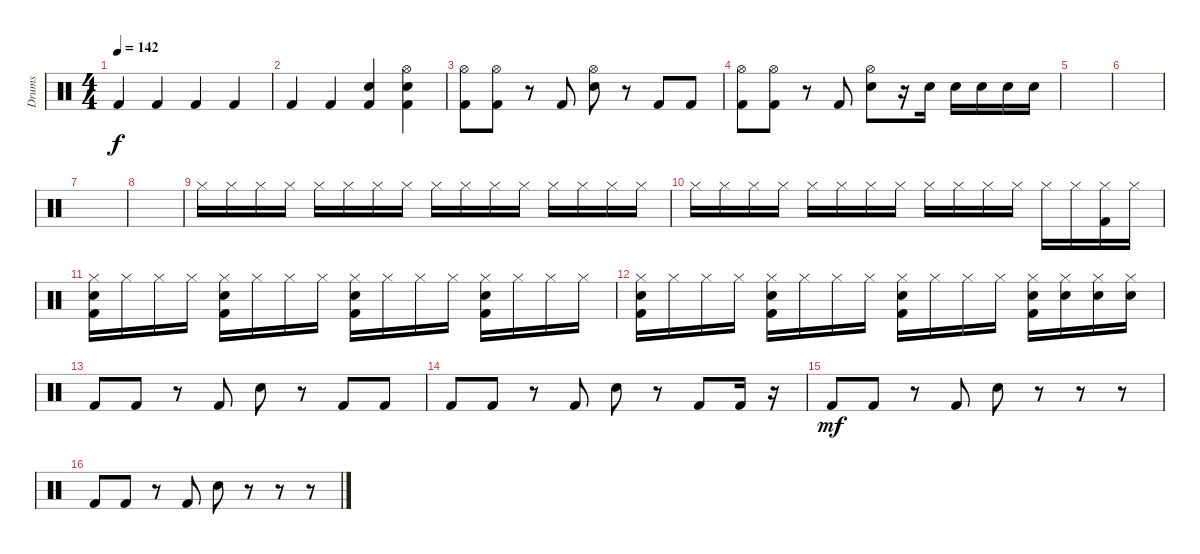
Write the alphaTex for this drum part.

\track ("Drums" "Drums") {instrument percussion}
\staff {score}
\articulation defaults
\ts (4 4)
\tempo 142
\clef neutral
\ks c "Kick (hit) 2".4{dy f} "Kick (hit) 2".4 "Kick (hit) 2".4 "Kick (hit) 2".4
|
"Kick (hit) 2".4 "Kick (hit) 2".4 ("Snare (hit) 2" "Kick (hit) 2").4 ("Hi-Hat (open)" "Snare (hit) 2" "Kick (hit) 2").4 |
("Hi-Hat (open)" "Kick (hit) 2").8 ("Hi-Hat (open)" "Kick (hit) 2").8 r.8 "Kick (hit) 2".8 ("Hi-Hat (open)" "Snare (hit) 2").8 r.8 "Kick (hit) 2".8 "Kick (hit) 2".8 |
("Hi-Hat (open)" "Kick (hit) 2").8 ("Hi-Hat (open)" "Kick (hit) 2").8 r.8 "Kick (hit) 2".8 ("Hi-Hat (open)" "Snare (hit) 2").8 r.16 "Snare (hit) 2".16 "Snare (hit) 2".16 "Snare (hit) 2".16 "Snare (hit) 2".16 "Snare (hit) 2".16 |
|
|
|
|
"Hi-Hat (closed)".16 "Hi-Hat (closed)".16 "Hi-Hat (closed)".16 "Hi-Hat (closed)".16 "Hi-Hat (closed)".16 "Hi-Hat (closed)".16 "Hi-Hat (closed)".16 "Hi-Hat (closed)".16 "Hi-Hat (closed)".16 "Hi-Hat (closed)".16 "Hi-Hat (closed)".16 "Hi-Hat (closed)".16 "Hi-Hat (closed)".16 "Hi-Hat (closed)".16 "Hi-Hat (closed)".16 "Hi-Hat (closed)".16 |
"Hi-Hat (closed)".16 "Hi-Hat (closed)".16 "Hi-Hat (closed)".16 "Hi-Hat (closed)".16 "Hi-Hat (closed)".16 "Hi-Hat (closed)".16 "Hi-Hat (closed)".16 "Hi-Hat (closed)".16 "Hi-Hat (closed)".16 "Hi-Hat (closed)".16 "Hi-Hat (closed)".16 "Hi-Hat (closed)".16 "Hi-Hat (closed)".16 "Hi-Hat (closed)".16 ("Hi-Hat (closed)" "Kick (hit) 2").16 "Hi-Hat (closed)".16 |
("Hi-Hat (closed)" "Snare (hit) 2" "Kick (hit) 2").16 "Hi-Hat (closed)".16 "Hi-Hat (closed)".16 "Hi-Hat (closed)".16 ("Hi-Hat (closed)" "Snare (hit) 2" "Kick (hit) 2").16 "Hi-Hat (closed)".16 "Hi-Hat (closed)".16 "Hi-Hat (closed)".16 ("Hi-Hat (closed)" "Snare (hit) 2" "Kick (hit) 2").16 "Hi-Hat (closed)".16 "Hi-Hat (closed)".16 "Hi-Hat (closed)".16 ("Hi-Hat (closed)" "Snare (hit) 2" "Kick (hit) 2").16 "Hi-Hat (closed)".16 "Hi-Hat (closed)".16 "Hi-Hat (closed)".16 |
("Hi-Hat (closed)" "Snare (hit) 2" "Kick (hit) 2").16 "Hi-Hat (closed)".16 "Hi-Hat (closed)".16 "Hi-Hat (closed)".16 ("Hi-Hat (closed)" "Snare (hit) 2" "Kick (hit) 2").16 "Hi-Hat (closed)".16 "Hi-Hat (closed)".16 "Hi-Hat (closed)".16 ("Hi-Hat (closed)" "Snare (hit) 2" "Kick (hit) 2").16 "Hi-Hat (closed)".16 "Hi-Hat (closed)".16 "Hi-Hat (closed)".16 ("Hi-Hat (closed)" "Snare (hit) 2" "Kick (hit) 2").16 ("Hi-Hat (closed)" "Snare (hit) 2").16 ("Hi-Hat (closed)" "Snare (hit) 2").16 ("Hi-Hat (closed)" "Snare (hit) 2").16 |
"Kick (hit) 2".8 "Kick (hit) 2".8 r.8 "Kick (hit) 2".8 "Snare (hit) 2".8 r.8 "Kick (hit) 2".8 "Kick (hit) 2".8 |
"Kick (hit) 2".8 "Kick (hit) 2".8 r.8 "Kick (hit) 2".8 "Snare (hit) 2".8 r.8 "Kick (hit) 2".8 "Kick (hit) 2".16 r.16 |
"Kick (hit) 2".8{dy mf} "Kick (hit) 2".8 r.8 "Kick (hit) 2".8 "Electric Snare (hit)".8 r.8 r.8 r.8 |
"Kick (hit) 2".8 "Kick (hit) 2".8 r.8 "Kick (hit) 2".8 "Electric Snare (hit)".8 r.8 r.8 r.8
